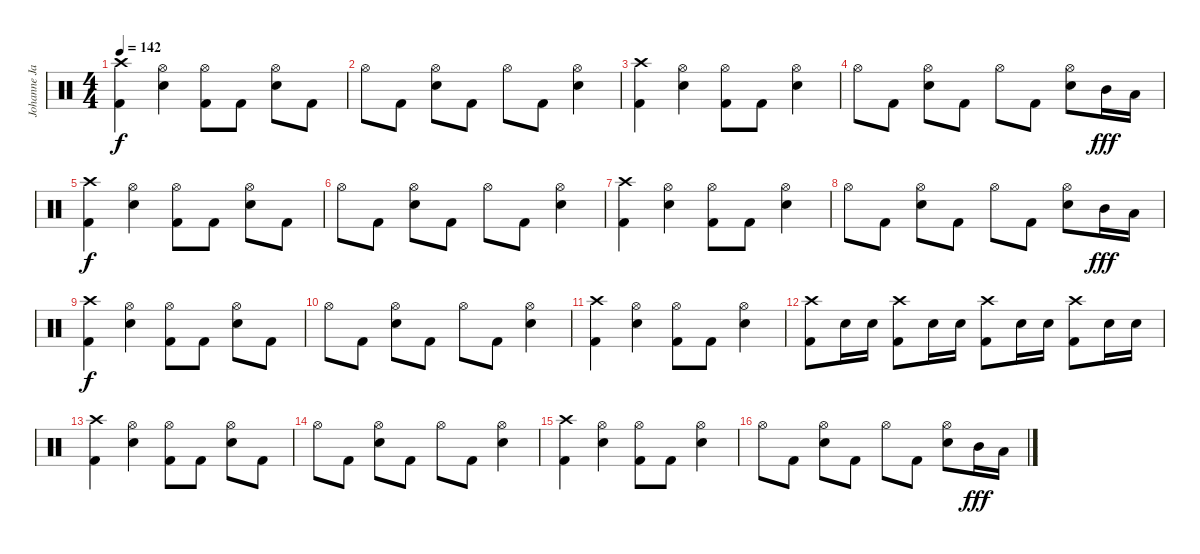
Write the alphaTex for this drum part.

\track ("Johanne James" "Johanne Ja") {instrument percussion}
\staff {score}
\articulation defaults
\ts (4 4)
\tempo 142
\clef neutral
\ks c
("Crash high (hit)" "Kick (hit) 2").4{dy f} ("Hi-Hat (open)" "Snare (hit) 2").4 ("Hi-Hat (open)" "Kick (hit) 2").8 "Kick (hit) 2".8 ("Hi-Hat (open)" "Snare (hit) 2").8 "Kick (hit) 2".8 |
"Hi-Hat (open)".8 "Kick (hit) 2".8 ("Hi-Hat (open)" "Snare (hit) 2").8 "Kick (hit) 2".8 "Hi-Hat (open)".8 "Kick (hit) 2".8 ("Hi-Hat (open)" "Snare (hit) 2").4 |
("Crash high (hit)" "Kick (hit) 2").4 ("Hi-Hat (open)" "Snare (hit) 2").4 ("Hi-Hat (open)" "Kick (hit) 2").8 "Kick (hit) 2".8 ("Hi-Hat (open)" "Snare (hit) 2").4 |
"Hi-Hat (open)".8 "Kick (hit) 2".8 ("Hi-Hat (open)" "Snare (hit) 2").8 "Kick (hit) 2".8 "Hi-Hat (open)".8 "Kick (hit) 2".8 ("Hi-Hat (open)" "Snare (hit) 2").8 "Mid Tom (hit)".16{dy fff} "Low Tom (hit)".16 |
("Crash high (hit)" "Kick (hit) 2").4{dy f} ("Hi-Hat (open)" "Snare (hit) 2").4 ("Hi-Hat (open)" "Kick (hit) 2").8 "Kick (hit) 2".8 ("Hi-Hat (open)" "Snare (hit) 2").8 "Kick (hit) 2".8 |
"Hi-Hat (open)".8 "Kick (hit) 2".8 ("Hi-Hat (open)" "Snare (hit) 2").8 "Kick (hit) 2".8 "Hi-Hat (open)".8 "Kick (hit) 2".8 ("Hi-Hat (open)" "Snare (hit) 2").4 |
("Crash high (hit)" "Kick (hit) 2").4 ("Hi-Hat (open)" "Snare (hit) 2").4 ("Hi-Hat (open)" "Kick (hit) 2").8 "Kick (hit) 2".8 ("Hi-Hat (open)" "Snare (hit) 2").4 |
"Hi-Hat (open)".8 "Kick (hit) 2".8 ("Hi-Hat (open)" "Snare (hit) 2").8 "Kick (hit) 2".8 "Hi-Hat (open)".8 "Kick (hit) 2".8 ("Hi-Hat (open)" "Snare (hit) 2").8 "Mid Tom (hit)".16{dy fff} "Low Tom (hit)".16 |
("Crash high (hit)" "Kick (hit) 2").4{dy f} ("Hi-Hat (open)" "Snare (hit) 2").4 ("Hi-Hat (open)" "Kick (hit) 2").8 "Kick (hit) 2".8 ("Hi-Hat (open)" "Snare (hit) 2").8 "Kick (hit) 2".8 |
"Hi-Hat (open)".8 "Kick (hit) 2".8 ("Hi-Hat (open)" "Snare (hit) 2").8 "Kick (hit) 2".8 "Hi-Hat (open)".8 "Kick (hit) 2".8 ("Hi-Hat (open)" "Snare (hit) 2").4 |
("Crash high (hit)" "Kick (hit) 2").4 ("Hi-Hat (open)" "Snare (hit) 2").4 ("Hi-Hat (open)" "Kick (hit) 2").8 "Kick (hit) 2".8 ("Hi-Hat (open)" "Snare (hit) 2").4 |
("Crash high (hit)" "Kick (hit) 2").8 "Snare (hit) 2".16 "Snare (hit) 2".16 ("Crash high (hit)" "Kick (hit) 2").8 "Snare (hit) 2".16 "Snare (hit) 2".16 ("Crash high (hit)" "Kick (hit) 2").8 "Snare (hit) 2".16 "Snare (hit) 2".16 ("Crash high (hit)" "Kick (hit) 2").8 "Snare (hit) 2".16 "Snare (hit) 2".16 |
("Crash high (hit)" "Kick (hit) 2").4 ("Hi-Hat (open)" "Snare (hit) 2").4 ("Hi-Hat (open)" "Kick (hit) 2").8 "Kick (hit) 2".8 ("Hi-Hat (open)" "Snare (hit) 2").8 "Kick (hit) 2".8 |
"Hi-Hat (open)".8 "Kick (hit) 2".8 ("Hi-Hat (open)" "Snare (hit) 2").8 "Kick (hit) 2".8 "Hi-Hat (open)".8 "Kick (hit) 2".8 ("Hi-Hat (open)" "Snare (hit) 2").4 |
("Crash high (hit)" "Kick (hit) 2").4 ("Hi-Hat (open)" "Snare (hit) 2").4 ("Hi-Hat (open)" "Kick (hit) 2").8 "Kick (hit) 2".8 ("Hi-Hat (open)" "Snare (hit) 2").4 |
"Hi-Hat (open)".8 "Kick (hit) 2".8 ("Hi-Hat (open)" "Snare (hit) 2").8 "Kick (hit) 2".8 "Hi-Hat (open)".8 "Kick (hit) 2".8 ("Hi-Hat (open)" "Snare (hit) 2").8 "Mid Tom (hit)".16{dy fff} "Low Tom (hit)".16
